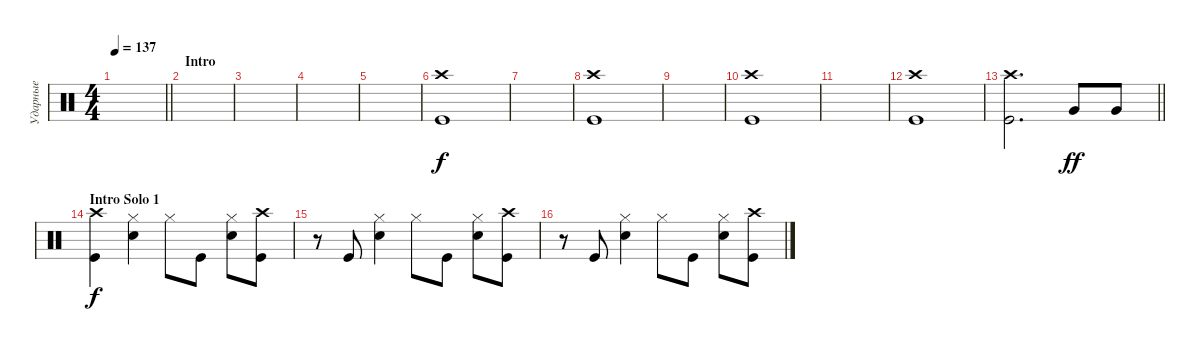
\track ("Ударные" "Ударные") {instrument percussion}
\staff {score}
\articulation defaults
\ts (4 4)
\tempo 137
\clef neutral
\barLineRight lightlight
\ks aminor
|
\section ("" "Intro")
|
|
|
|
("Kick (hit)" "Crash high (hit)").1 |
|
("Kick (hit)" "Crash high (hit)").1 |
|
("Kick (hit)" "Crash high (hit)").1 |
|
("Kick (hit)" "Crash high (hit)").1 |
\barLineRight lightlight
("Kick (hit)" "Crash high (hit)").2{d} "Very Low Tom (hit)".8{dy ff} "Very Low Tom (hit)".8 |
\section ("" "Intro Solo 1")
("Kick (hit)" "Crash high (hit)").4{dy f} ("Snare (hit) 2" "Hi-Hat (closed)").4 "Hi-Hat (closed)".8 "Kick (hit)".8 ("Snare (hit) 2" "Hi-Hat (closed)").8 ("Kick (hit)" "Crash high (hit)").8 |
r.8 "Kick (hit)".8 ("Snare (hit) 2" "Hi-Hat (closed)").4 "Hi-Hat (closed)".8 "Kick (hit)".8 ("Snare (hit) 2" "Hi-Hat (closed)").8 ("Kick (hit)" "Crash high (hit)").8 |
r.8 "Kick (hit)".8 ("Snare (hit) 2" "Hi-Hat (closed)").4 "Hi-Hat (closed)".8 "Kick (hit)".8 ("Snare (hit) 2" "Hi-Hat (closed)").8 ("Kick (hit)" "Crash high (hit)").8
